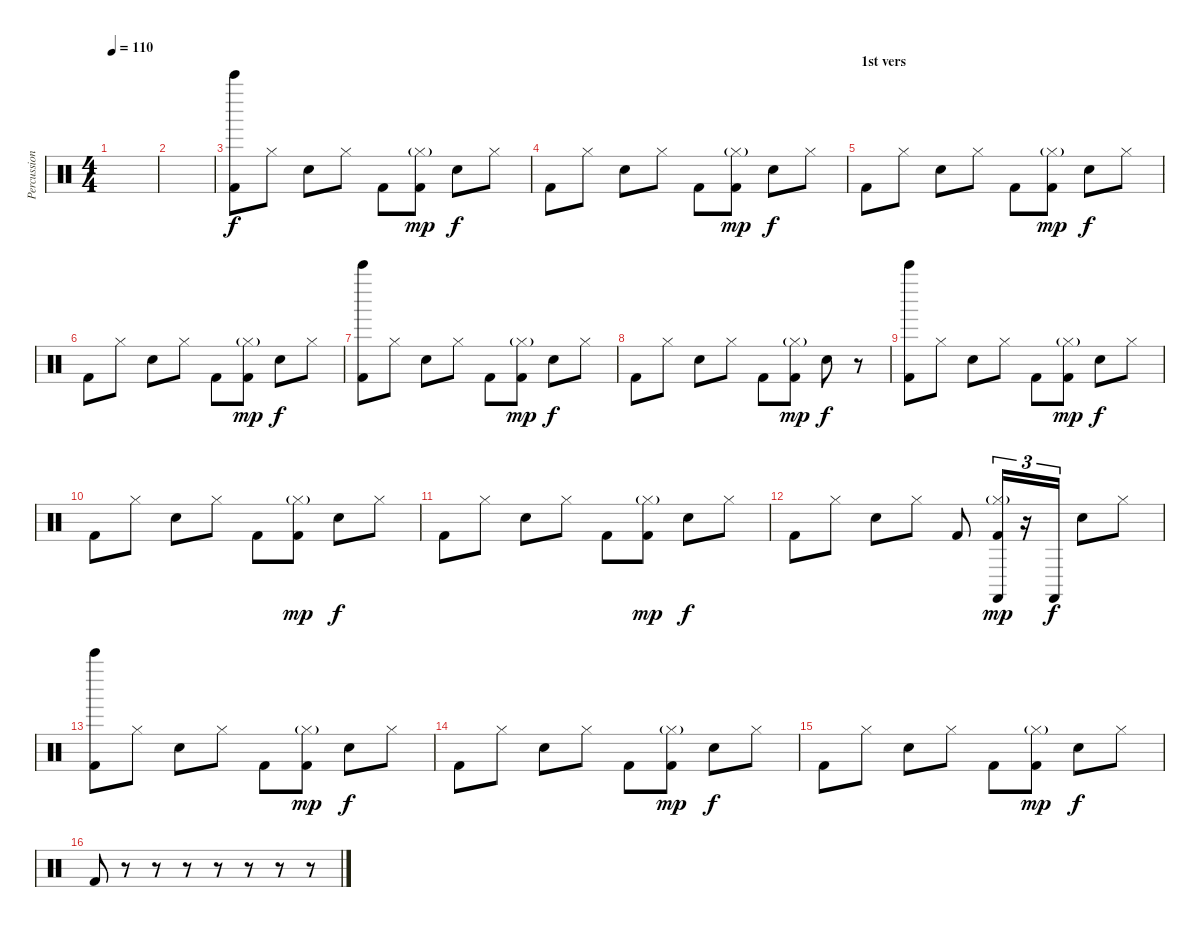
\track ("Percussion" "Percussion") {instrument percussion}
\staff {score}
\articulation defaults
\ts (4 4)
\tempo 110
\clef neutral
\ks c
|
|
("Bell Tree (hit)" "Kick (hit) 2").8 "Hi-Hat (closed)".8 "Electric Snare (hit)".8 "Hi-Hat (closed)".8 "Kick (hit) 2".8 ("Hi-Hat (closed)"{g} "Kick (hit) 2").8{dy mp} "Electric Snare (hit)".8{dy f} "Hi-Hat (closed)".8 |
"Kick (hit) 2".8 "Hi-Hat (closed)".8 "Electric Snare (hit)".8 "Hi-Hat (closed)".8 "Kick (hit) 2".8 ("Hi-Hat (closed)"{g} "Kick (hit) 2").8{dy mp} "Electric Snare (hit)".8{dy f} "Hi-Hat (closed)".8 |
\section ("" "1st vers")
"Kick (hit) 2".8 "Hi-Hat (closed)".8 "Electric Snare (hit)".8 "Hi-Hat (closed)".8 "Kick (hit) 2".8 ("Hi-Hat (closed)"{g} "Kick (hit) 2").8{dy mp} "Electric Snare (hit)".8{dy f} "Hi-Hat (closed)".8 |
"Kick (hit) 2".8 "Hi-Hat (closed)".8 "Electric Snare (hit)".8 "Hi-Hat (closed)".8 "Kick (hit) 2".8 ("Hi-Hat (closed)"{g} "Kick (hit) 2").8{dy mp} "Electric Snare (hit)".8{dy f} "Hi-Hat (closed)".8 |
("Bell Tree (hit)" "Kick (hit) 2").8 "Hi-Hat (closed)".8 "Electric Snare (hit)".8 "Hi-Hat (closed)".8 "Kick (hit) 2".8 ("Hi-Hat (closed)"{g} "Kick (hit) 2").8{dy mp} "Electric Snare (hit)".8{dy f} "Hi-Hat (closed)".8 |
"Kick (hit) 2".8 "Hi-Hat (closed)".8 "Electric Snare (hit)".8 "Hi-Hat (closed)".8 "Kick (hit) 2".8 ("Hi-Hat (closed)"{g} "Kick (hit) 2").8{dy mp} "Electric Snare (hit)".8{dy f} r.8 |
("Bell Tree (hit)" "Kick (hit) 2").8 "Hi-Hat (closed)".8 "Electric Snare (hit)".8 "Hi-Hat (closed)".8 "Kick (hit) 2".8 ("Hi-Hat (closed)"{g} "Kick (hit) 2").8{dy mp} "Electric Snare (hit)".8{dy f} "Hi-Hat (closed)".8 |
"Kick (hit) 2".8 "Hi-Hat (closed)".8 "Electric Snare (hit)".8 "Hi-Hat (closed)".8 "Kick (hit) 2".8 ("Hi-Hat (closed)"{g} "Kick (hit) 2").8{dy mp} "Electric Snare (hit)".8{dy f} "Hi-Hat (closed)".8 |
"Kick (hit) 2".8 "Hi-Hat (closed)".8 "Electric Snare (hit)".8 "Hi-Hat (closed)".8 "Kick (hit) 2".8 ("Hi-Hat (closed)"{g} "Kick (hit) 2").8{dy mp} "Electric Snare (hit)".8{dy f} "Hi-Hat (closed)".8 |
"Kick (hit) 2".8 "Hi-Hat (closed)".8 "Electric Snare (hit)".8 "Hi-Hat (closed)".8 "Kick (hit) 2".8 ("Hi-Hat (closed)"{g} "Castanets (hit)" "Kick (hit) 2").16{tu (3 2) dy mp} r.16{tu (3 2)} "Castanets (hit)".16{tu (3 2) dy f} "Electric Snare (hit)".8 "Hi-Hat (closed)".8 |
("Bell Tree (hit)" "Kick (hit) 2").8 "Hi-Hat (closed)".8 "Electric Snare (hit)".8 "Hi-Hat (closed)".8 "Kick (hit) 2".8 ("Hi-Hat (closed)"{g} "Kick (hit) 2").8{dy mp} "Electric Snare (hit)".8{dy f} "Hi-Hat (closed)".8 |
"Kick (hit) 2".8 "Hi-Hat (closed)".8 "Electric Snare (hit)".8 "Hi-Hat (closed)".8 "Kick (hit) 2".8 ("Hi-Hat (closed)"{g} "Kick (hit) 2").8{dy mp} "Electric Snare (hit)".8{dy f} "Hi-Hat (closed)".8 |
"Kick (hit) 2".8 "Hi-Hat (closed)".8 "Electric Snare (hit)".8 "Hi-Hat (closed)".8 "Kick (hit) 2".8 ("Hi-Hat (closed)"{g} "Kick (hit) 2").8{dy mp} "Electric Snare (hit)".8{dy f} "Hi-Hat (closed)".8 |
"Kick (hit) 2".8 r.8 r.8 r.8 r.8 r.8 r.8 r.8
